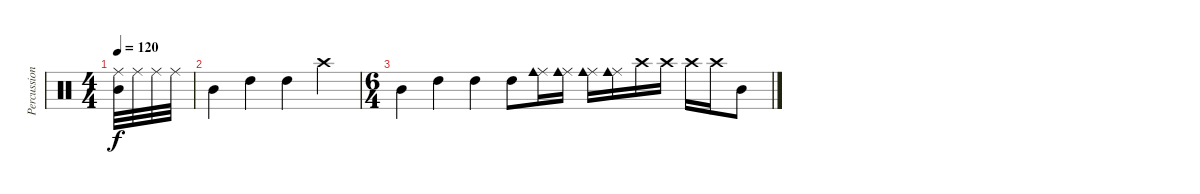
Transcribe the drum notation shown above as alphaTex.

\track ("Percussions" "Percussion") {instrument percussion}
\staff {score}
\articulation defaults
\ts (4 4)
\tempo 120
\clef neutral
\ks c
("Ride (middle)" "Mid Tom (hit)").32{dy f} "Ride (middle)".32 "Ride (middle)".32 "Ride (middle)".32 |
"Mid Tom (hit)".4 "High Tom (hit)".4 "High Tom (hit)".4 "Crash high (hit)".4 |
\ts (6 4)
"Mid Tom (hit)".4 "High Tom (hit)".4 "High Tom (hit)".4 "High Tom (hit)".8 ("Ride (middle)" "Cowbell medium (hit)").16 ("Ride (middle)" "Cowbell medium (hit)").16 ("Ride (middle)" "Cowbell medium (hit)").16 ("Ride (middle)" "Cowbell medium (hit)").16 "Crash high (hit)".16 "Crash high (hit)".16 "Crash high (hit)".16 "Crash high (hit)".16 "Mid Tom (hit)".8
